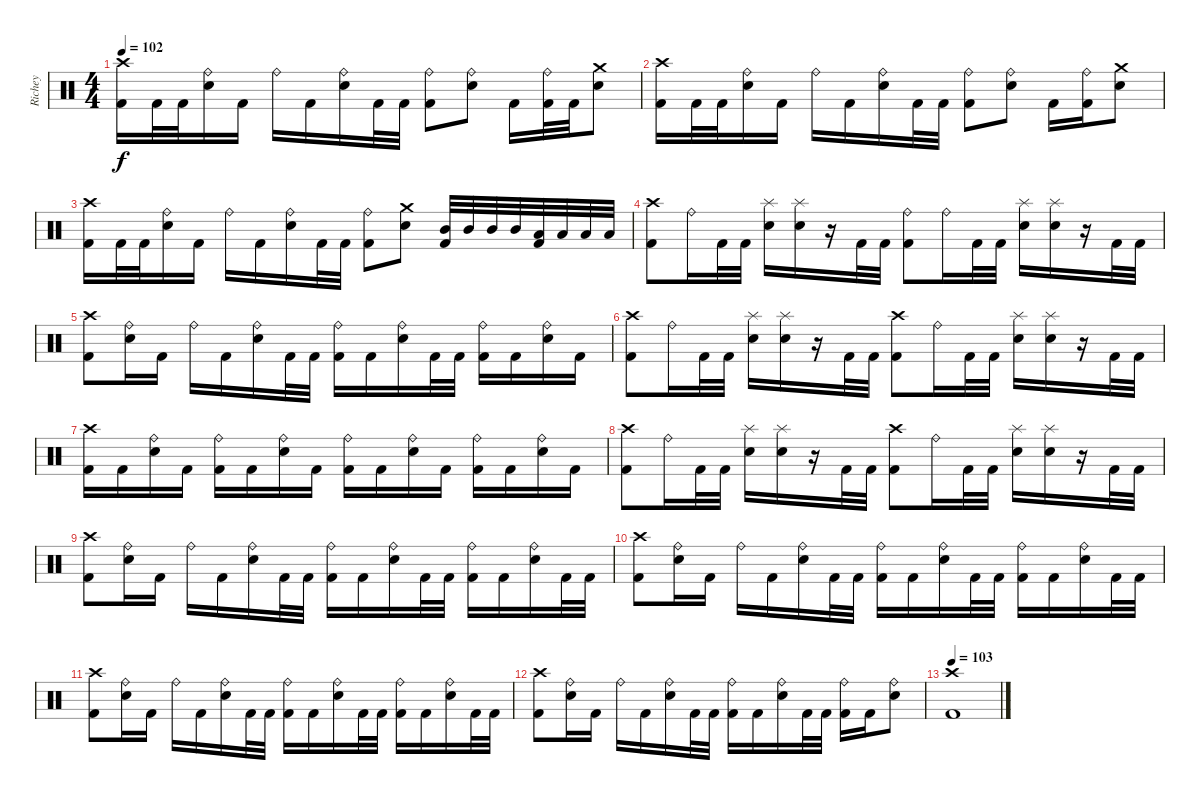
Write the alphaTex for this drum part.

\track ("Richey" "Richey") {instrument percussion}
\staff {score}
\articulation defaults
\ts (4 4)
\tempo 102
\clef neutral
\ks c
("Crash high (hit)" "Kick (hit) 2").16{dy f} "Kick (hit) 2".32 "Kick (hit) 2".32 ("Ride (bell)" "Snare (hit) 2").16 "Kick (hit) 2".16 "Ride (bell)".16 "Kick (hit) 2".16 ("Ride (bell)" "Snare (hit) 2").16 "Kick (hit) 2".32 "Kick (hit) 2".32 ("Ride (bell)" "Kick (hit) 2").8 ("Ride (bell)" "Snare (hit) 2").8 "Kick (hit) 2".16 ("Ride (bell)" "Kick (hit) 2").32 "Kick (hit) 2".32 ("Crash medium (hit)" "Snare (hit) 2").8 |
("Crash high (hit)" "Kick (hit) 2").16 "Kick (hit) 2".32 "Kick (hit) 2".32 ("Ride (bell)" "Snare (hit) 2").16 "Kick (hit) 2".16 "Ride (bell)".16 "Kick (hit) 2".16 ("Ride (bell)" "Snare (hit) 2").16 "Kick (hit) 2".32 "Kick (hit) 2".32 ("Ride (bell)" "Kick (hit) 2").8 ("Ride (bell)" "Snare (hit) 2").8 "Kick (hit) 2".16 ("Ride (bell)" "Kick (hit) 2").16 ("Crash medium (hit)" "Snare (hit) 2").8 |
("Crash high (hit)" "Kick (hit) 2").16 "Kick (hit) 2".32 "Kick (hit) 2".32 ("Ride (bell)" "Snare (hit) 2").16 "Kick (hit) 2".16 "Ride (bell)".16 "Kick (hit) 2".16 ("Ride (bell)" "Snare (hit) 2").16 "Kick (hit) 2".32 "Kick (hit) 2".32 ("Ride (bell)" "Kick (hit) 2").8 ("Crash medium (hit)" "Snare (hit) 2").8 ("Mid Tom (hit)" "Kick (hit) 2").32 "Mid Tom (hit)".32 "Mid Tom (hit)".32 "Mid Tom (hit)".32 ("Low Tom (hit)" "Kick (hit) 2").32 "Low Tom (hit)".32 "Low Tom (hit)".32 "Low Tom (hit)".32 |
("Crash high (hit)" "Kick (hit) 2").8 "Ride (bell)".16 "Kick (hit) 2".32 "Kick (hit) 2".32 ("Splash (hit)" "Snare (hit) 2").16 ("Splash (hit)" "Snare (hit) 2").16 r.16 "Kick (hit) 2".32 "Kick (hit) 2".32 ("Ride (bell)" "Kick (hit) 2").8 "Ride (bell)".16 "Kick (hit) 2".32 "Kick (hit) 2".32 ("Splash (hit)" "Snare (hit) 2").16 ("Splash (hit)" "Snare (hit) 2").16 r.16 "Kick (hit) 2".32 "Kick (hit) 2".32 |
("Crash high (hit)" "Kick (hit) 2").8 ("Ride (bell)" "Snare (hit) 2").16 "Kick (hit) 2".16 "Ride (bell)".16 "Kick (hit) 2".16 ("Ride (bell)" "Snare (hit) 2").16 "Kick (hit) 2".32 "Kick (hit) 2".32 ("Ride (bell)" "Kick (hit) 2").16 "Kick (hit) 2".16 ("Ride (bell)" "Snare (hit) 2").16 "Kick (hit) 2".32 "Kick (hit) 2".32 ("Ride (bell)" "Kick (hit) 2").16 "Kick (hit) 2".16 ("Ride (bell)" "Snare (hit) 2").16 "Kick (hit) 2".16 |
("Crash high (hit)" "Kick (hit) 2").8 "Ride (bell)".16 "Kick (hit) 2".32 "Kick (hit) 2".32 ("Splash (hit)" "Snare (hit) 2").16 ("Splash (hit)" "Snare (hit) 2").16 r.16 "Kick (hit) 2".32 "Kick (hit) 2".32 ("Crash high (hit)" "Kick (hit) 2").8 "Ride (bell)".16 "Kick (hit) 2".32 "Kick (hit) 2".32 ("Splash (hit)" "Snare (hit) 2").16 ("Splash (hit)" "Snare (hit) 2").16 r.16 "Kick (hit) 2".32 "Kick (hit) 2".32 |
("Crash high (hit)" "Kick (hit) 2").16 "Kick (hit) 2".16 ("Ride (bell)" "Snare (hit) 2").16 "Kick (hit) 2".16 ("Ride (bell)" "Kick (hit) 2").16 "Kick (hit) 2".16 ("Ride (bell)" "Snare (hit) 2").16 "Kick (hit) 2".16 ("Ride (bell)" "Kick (hit) 2").16 "Kick (hit) 2".16 ("Ride (bell)" "Snare (hit) 2").16 "Kick (hit) 2".16 ("Ride (bell)" "Kick (hit) 2").16 "Kick (hit) 2".16 ("Ride (bell)" "Snare (hit) 2").16 "Kick (hit) 2".16 |
("Crash high (hit)" "Kick (hit) 2").8 "Ride (bell)".16 "Kick (hit) 2".32 "Kick (hit) 2".32 ("Splash (hit)" "Snare (hit) 2").16 ("Splash (hit)" "Snare (hit) 2").16 r.16 "Kick (hit) 2".32 "Kick (hit) 2".32 ("Crash high (hit)" "Kick (hit) 2").8 "Ride (bell)".16 "Kick (hit) 2".32 "Kick (hit) 2".32 ("Splash (hit)" "Snare (hit) 2").16 ("Splash (hit)" "Snare (hit) 2").16 r.16 "Kick (hit) 2".32 "Kick (hit) 2".32 |
("Crash high (hit)" "Kick (hit) 2").8 ("Ride (bell)" "Snare (hit) 2").16 "Kick (hit) 2".16 "Ride (bell)".16 "Kick (hit) 2".16 ("Ride (bell)" "Snare (hit) 2").16 "Kick (hit) 2".32 "Kick (hit) 2".32 ("Ride (bell)" "Kick (hit) 2").16 "Kick (hit) 2".16 ("Ride (bell)" "Snare (hit) 2").16 "Kick (hit) 2".32 "Kick (hit) 2".32 ("Ride (bell)" "Kick (hit) 2").16 "Kick (hit) 2".16 ("Ride (bell)" "Snare (hit) 2").16 "Kick (hit) 2".32 "Kick (hit) 2".32 |
("Crash high (hit)" "Kick (hit) 2").8 ("Ride (bell)" "Snare (hit) 2").16 "Kick (hit) 2".16 "Ride (bell)".16 "Kick (hit) 2".16 ("Ride (bell)" "Snare (hit) 2").16 "Kick (hit) 2".32 "Kick (hit) 2".32 ("Ride (bell)" "Kick (hit) 2").16 "Kick (hit) 2".16 ("Ride (bell)" "Snare (hit) 2").16 "Kick (hit) 2".32 "Kick (hit) 2".32 ("Ride (bell)" "Kick (hit) 2").16 "Kick (hit) 2".16 ("Ride (bell)" "Snare (hit) 2").16 "Kick (hit) 2".32 "Kick (hit) 2".32 |
("Crash high (hit)" "Kick (hit) 2").8 ("Ride (bell)" "Snare (hit) 2").16 "Kick (hit) 2".16 "Ride (bell)".16 "Kick (hit) 2".16 ("Ride (bell)" "Snare (hit) 2").16 "Kick (hit) 2".32 "Kick (hit) 2".32 ("Ride (bell)" "Kick (hit) 2").16 "Kick (hit) 2".16 ("Ride (bell)" "Snare (hit) 2").16 "Kick (hit) 2".32 "Kick (hit) 2".32 ("Ride (bell)" "Kick (hit) 2").16 "Kick (hit) 2".16 ("Ride (bell)" "Snare (hit) 2").16 "Kick (hit) 2".32 "Kick (hit) 2".32 |
("Crash high (hit)" "Kick (hit) 2").8 ("Ride (bell)" "Snare (hit) 2").16 "Kick (hit) 2".16 "Ride (bell)".16 "Kick (hit) 2".16 ("Ride (bell)" "Snare (hit) 2").16 "Kick (hit) 2".32 "Kick (hit) 2".32 ("Ride (bell)" "Kick (hit) 2").16 "Kick (hit) 2".16 ("Ride (bell)" "Snare (hit) 2").16 "Kick (hit) 2".32 "Kick (hit) 2".32 ("Ride (bell)" "Kick (hit) 2").16 "Kick (hit) 2".16 ("Ride (bell)" "Snare (hit) 2").8 |
\tempo 103
("Crash high (hit)" "Kick (hit) 2").1
